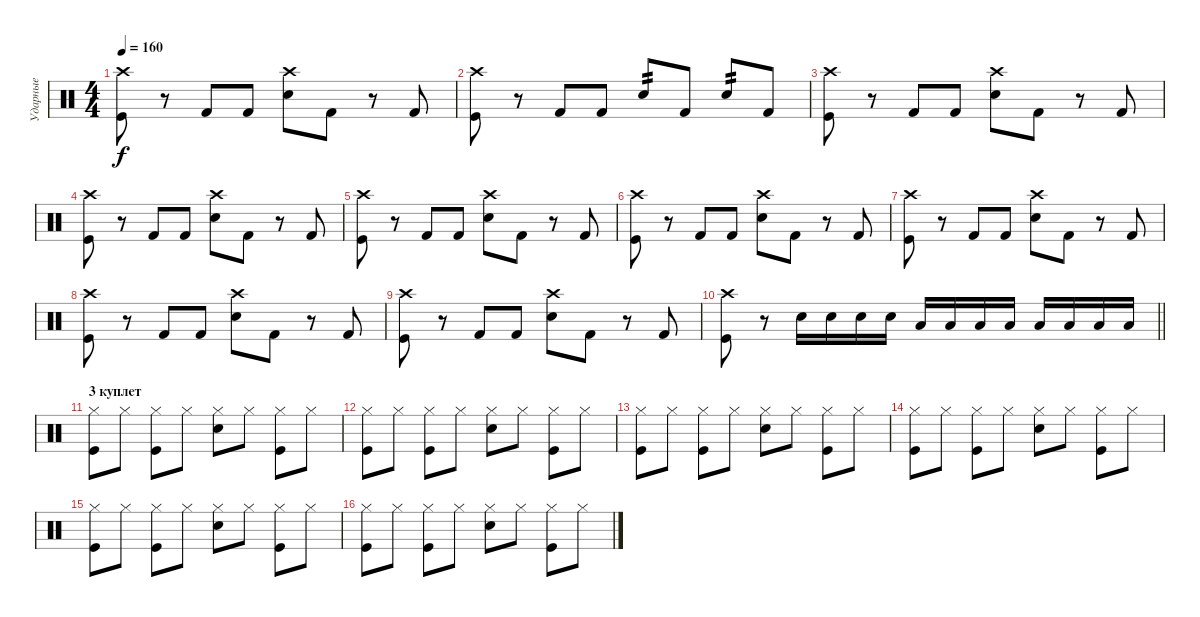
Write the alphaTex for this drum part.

\track ("Ударные" "Ударные") {instrument percussion}
\staff {score}
\articulation defaults
\ts (4 4)
\tempo 160
\clef neutral
\ks c
("Kick (hit)" "Crash high (hit)").8{dy f} r.8 "Kick (hit) 2".8 "Kick (hit) 2".8 ("Snare (hit) 2" "Crash high (hit)").8 "Kick (hit) 2".8 r.8 "Kick (hit) 2".8 |
("Kick (hit)" "Crash high (hit)").8 r.8 "Kick (hit) 2".8 "Kick (hit) 2".8 "Snare (hit) 2".8{tp 2} "Kick (hit) 2".8 "Snare (hit) 2".8{tp 2} "Kick (hit) 2".8 |
("Kick (hit)" "Crash high (hit)").8 r.8 "Kick (hit) 2".8 "Kick (hit) 2".8 ("Snare (hit) 2" "Crash high (hit)").8 "Kick (hit) 2".8 r.8 "Kick (hit) 2".8 |
("Kick (hit)" "Crash high (hit)").8 r.8 "Kick (hit) 2".8 "Kick (hit) 2".8 ("Snare (hit) 2" "Crash high (hit)").8 "Kick (hit) 2".8 r.8 "Kick (hit) 2".8 |
("Kick (hit)" "Crash high (hit)").8 r.8 "Kick (hit) 2".8 "Kick (hit) 2".8 ("Snare (hit) 2" "Crash high (hit)").8 "Kick (hit) 2".8 r.8 "Kick (hit) 2".8 |
("Kick (hit)" "Crash high (hit)").8 r.8 "Kick (hit) 2".8 "Kick (hit) 2".8 ("Snare (hit) 2" "Crash high (hit)").8 "Kick (hit) 2".8 r.8 "Kick (hit) 2".8 |
("Kick (hit)" "Crash high (hit)").8 r.8 "Kick (hit) 2".8 "Kick (hit) 2".8 ("Snare (hit) 2" "Crash high (hit)").8 "Kick (hit) 2".8 r.8 "Kick (hit) 2".8 |
("Kick (hit)" "Crash high (hit)").8 r.8 "Kick (hit) 2".8 "Kick (hit) 2".8 ("Snare (hit) 2" "Crash high (hit)").8 "Kick (hit) 2".8 r.8 "Kick (hit) 2".8 |
("Kick (hit)" "Crash high (hit)").8 r.8 "Kick (hit) 2".8 "Kick (hit) 2".8 ("Snare (hit) 2" "Crash high (hit)").8 "Kick (hit) 2".8 r.8 "Kick (hit) 2".8 |
\barLineRight lightlight
("Kick (hit)" "Crash high (hit)").8 r.8 "Snare (hit) 2".16 "Snare (hit) 2".16 "Snare (hit) 2".16 "Snare (hit) 2".16 "Low Tom (hit)".16 "Low Tom (hit)".16 "Low Tom (hit)".16 "Low Tom (hit)".16 "Low Floor Tom (hit)".16 "Low Floor Tom (hit)".16 "Low Floor Tom (hit)".16 "Low Floor Tom (hit)".16 |
\section ("" "3 куплет")
("Kick (hit)" "Hi-Hat (closed)").8 "Hi-Hat (closed)".8 ("Kick (hit)" "Hi-Hat (closed)").8 "Hi-Hat (closed)".8 ("Snare (hit) 2" "Hi-Hat (closed)").8 "Hi-Hat (closed)".8 ("Kick (hit)" "Hi-Hat (closed)").8 "Hi-Hat (closed)".8 |
("Kick (hit)" "Hi-Hat (closed)").8 "Hi-Hat (closed)".8 ("Kick (hit)" "Hi-Hat (closed)").8 "Hi-Hat (closed)".8 ("Snare (hit) 2" "Hi-Hat (closed)").8 "Hi-Hat (closed)".8 ("Kick (hit)" "Hi-Hat (closed)").8 "Hi-Hat (closed)".8 |
("Kick (hit)" "Hi-Hat (closed)").8 "Hi-Hat (closed)".8 ("Kick (hit)" "Hi-Hat (closed)").8 "Hi-Hat (closed)".8 ("Snare (hit) 2" "Hi-Hat (closed)").8 "Hi-Hat (closed)".8 ("Kick (hit)" "Hi-Hat (closed)").8 "Hi-Hat (closed)".8 |
("Kick (hit)" "Hi-Hat (closed)").8 "Hi-Hat (closed)".8 ("Kick (hit)" "Hi-Hat (closed)").8 "Hi-Hat (closed)".8 ("Snare (hit) 2" "Hi-Hat (closed)").8 "Hi-Hat (closed)".8 ("Kick (hit)" "Hi-Hat (closed)").8 "Hi-Hat (closed)".8 |
("Kick (hit)" "Hi-Hat (closed)").8 "Hi-Hat (closed)".8 ("Kick (hit)" "Hi-Hat (closed)").8 "Hi-Hat (closed)".8 ("Snare (hit) 2" "Hi-Hat (closed)").8 "Hi-Hat (closed)".8 ("Kick (hit)" "Hi-Hat (closed)").8 "Hi-Hat (closed)".8 |
("Kick (hit)" "Hi-Hat (closed)").8 "Hi-Hat (closed)".8 ("Kick (hit)" "Hi-Hat (closed)").8 "Hi-Hat (closed)".8 ("Snare (hit) 2" "Hi-Hat (closed)").8 "Hi-Hat (closed)".8 ("Kick (hit)" "Hi-Hat (closed)").8 "Hi-Hat (closed)".8
